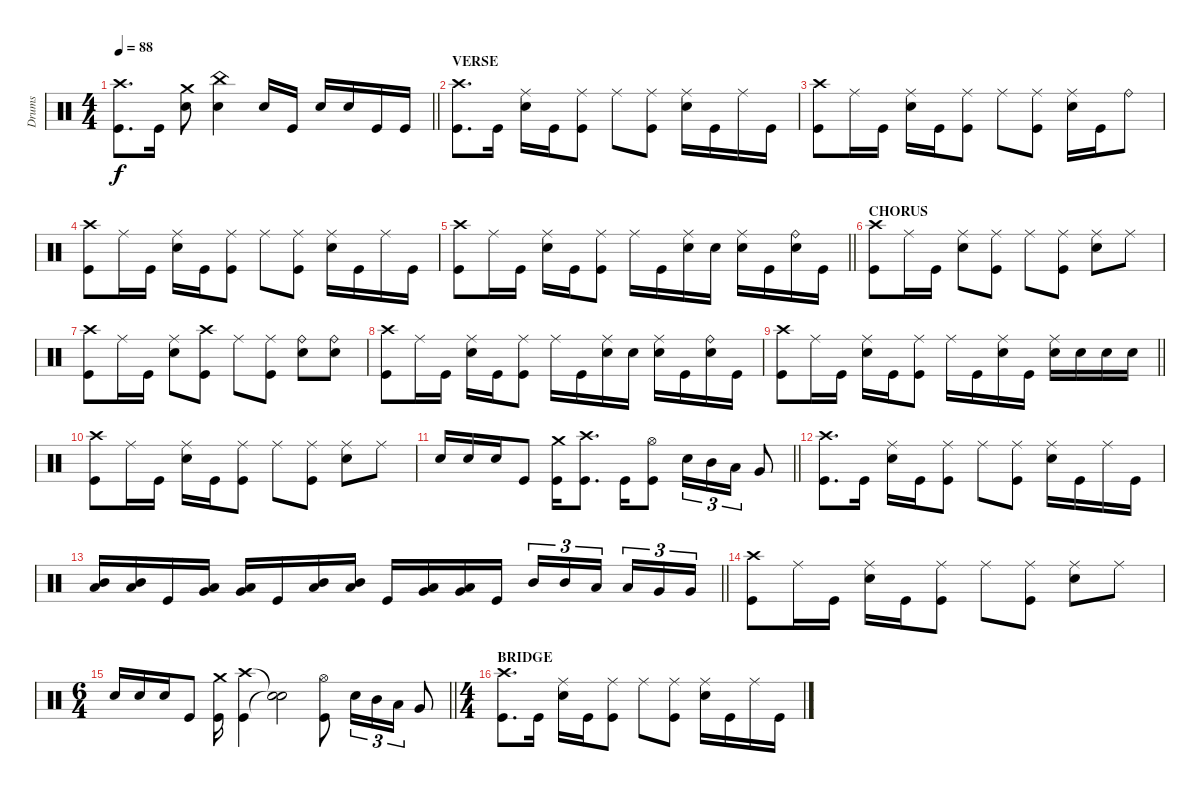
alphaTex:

\track ("Drums" "Drums") {instrument percussion}
\staff
\articulation defaults
\ts (4 4)
\tempo 88
\clef neutral
\barLineRight lightlight
\ks c
("Crash high (hit)" "Kick (hit)").8{d dy f} "Kick (hit)".16 ("Crash medium (hit)" "Electric Snare (hit)").8 ("China (hit)" "Electric Snare (hit)").4 "Electric Snare (hit)".16 "Kick (hit)".16 "Electric Snare (hit)".16 "Electric Snare (hit)".16 "Kick (hit)".16 "Kick (hit)".16 |
\section ("" "VERSE")
("Crash high (hit)" "Kick (hit)").8{d} "Kick (hit)".16 ("Ride (middle)" "Electric Snare (hit)").16 "Kick (hit)".16 ("Ride (middle)" "Kick (hit)").8 "Ride (middle)".8 ("Ride (middle)" "Kick (hit)").8 ("Ride (middle)" "Electric Snare (hit)").16 "Kick (hit)".16 "Ride (middle)".16 "Kick (hit)".16 |
("Crash high (hit)" "Kick (hit)").8 "Ride (middle)".16 "Kick (hit)".16 ("Ride (middle)" "Electric Snare (hit)").16 "Kick (hit)".16 ("Ride (middle)" "Kick (hit)").8 "Ride (middle)".8 ("Ride (middle)" "Kick (hit)").8 ("Ride (middle)" "Electric Snare (hit)").16 "Kick (hit)".16 "Ride (bell)".8 |
("Crash high (hit)" "Kick (hit)").8 "Ride (middle)".16 "Kick (hit)".16 ("Ride (middle)" "Electric Snare (hit)").16 "Kick (hit)".16 ("Ride (middle)" "Kick (hit)").8 "Ride (middle)".8 ("Ride (middle)" "Kick (hit)").8 ("Ride (middle)" "Electric Snare (hit)").16 "Kick (hit)".16 "Ride (middle)".16 "Kick (hit)".16 |
\barLineRight lightlight
("Crash high (hit)" "Kick (hit)").8 "Ride (middle)".16 "Kick (hit)".16 ("Ride (middle)" "Electric Snare (hit)").16 "Kick (hit)".16 ("Ride (middle)" "Kick (hit)").8 "Ride (middle)".16 "Kick (hit)".16 ("Ride (middle)" "Electric Snare (hit)").16 "Electric Snare (hit)".16 ("Ride (middle)" "Electric Snare (hit)").16 "Kick (hit)".16 ("Ride (bell)" "Electric Snare (hit)").16 "Kick (hit)".16 |
\section ("" "CHORUS")
("Crash high (hit)" "Kick (hit)").8 "Ride (middle)".16 "Kick (hit)".16 ("Ride (middle)" "Electric Snare (hit)").8 ("Ride (middle)" "Kick (hit)").8 "Ride (middle)".8 ("Ride (middle)" "Kick (hit)").8 ("Ride (middle)" "Electric Snare (hit)").8 "Ride (middle)".8 |
("Crash high (hit)" "Kick (hit)").8 "Ride (middle)".16 "Kick (hit)".16 ("Ride (middle)" "Electric Snare (hit)").8 ("Crash high (hit)" "Kick (hit)").8 "Ride (middle)".8 ("Ride (middle)" "Kick (hit)").8 ("Ride (bell)" "Electric Snare (hit)").8 ("Ride (bell)" "Electric Snare (hit)").8 |
("Crash high (hit)" "Kick (hit)").8 "Ride (middle)".16 "Kick (hit)".16 ("Ride (middle)" "Electric Snare (hit)").16 "Kick (hit)".16 ("Ride (middle)" "Kick (hit)").8 "Ride (middle)".16 "Kick (hit)".16 ("Ride (middle)" "Electric Snare (hit)").16 "Electric Snare (hit)".16 ("Ride (middle)" "Electric Snare (hit)").16 "Kick (hit)".16 ("Ride (bell)" "Electric Snare (hit)").16 "Kick (hit)".16 |
\barLineRight lightlight
("Crash high (hit)" "Kick (hit)").8 "Ride (middle)".16 "Kick (hit)".16 ("Ride (middle)" "Electric Snare (hit)").16 "Kick (hit)".16 ("Ride (middle)" "Kick (hit)").8 "Ride (middle)".16 "Kick (hit)".16 ("Ride (middle)" "Electric Snare (hit)").16 "Kick (hit)".16 ("Ride (middle)" "Electric Snare (hit)").16 "Electric Snare (hit)".16 "Electric Snare (hit)".16 "Electric Snare (hit)".16 |
("Crash high (hit)" "Kick (hit)").8 "Ride (middle)".16 "Kick (hit)".16 ("Ride (middle)" "Electric Snare (hit)").16 "Kick (hit)".16 ("Ride (middle)" "Kick (hit)").8 "Ride (middle)".8 ("Ride (middle)" "Kick (hit)").8 ("Ride (middle)" "Electric Snare (hit)").8 "Ride (middle)".8 |
\barLineRight lightlight "Electric Snare (hit)".16 "Electric Snare (hit)".16 "Electric Snare (hit)".16 "Kick (hit)".8
("Crash medium (hit)" "Kick (hit)").16 ("Crash high (hit)" "Kick (hit)").8{d} "Kick (hit)".16 ("Hi-Hat (open)" "Kick (hit)").8 "Electric Snare (hit)".16{tu (3 2)} "Mid Tom (hit)".16{tu (3 2)} "Low Tom (hit)".16{tu (3 2)} "Very Low Tom (hit)".8 |
("Crash high (hit)" "Kick (hit)").8{d} "Kick (hit)".16 ("Ride (middle)" "Electric Snare (hit)").16 "Kick (hit)".16 ("Ride (middle)" "Kick (hit)").8 "Ride (middle)".8 ("Ride (middle)" "Kick (hit)").8 ("Ride (middle)" "Electric Snare (hit)").16 "Kick (hit)".16 "Ride (middle)".16 "Kick (hit)".16 |
\barLineRight lightlight
("Mid Tom (hit)" "Low Tom (hit)").16 ("Mid Tom (hit)" "Low Tom (hit)").16 "Kick (hit)".16 ("Low Tom (hit)" "Very Low Tom (hit)").16 ("Low Tom (hit)" "Very Low Tom (hit)").16 "Kick (hit)".16 ("Mid Tom (hit)" "Low Tom (hit)").16 ("Mid Tom (hit)" "Low Tom (hit)").16 "Kick (hit)".16 ("Low Tom (hit)" "Very Low Tom (hit)").16 ("Low Tom (hit)" "Very Low Tom (hit)").16 "Kick (hit)".16 "Mid Tom (hit)".16{tu (3 2)} "Mid Tom (hit)".16{tu (3 2)} "Low Tom (hit)".16{tu (3 2) beam splitsecondary} "Low Tom (hit)".16{tu (3 2)} "Very Low Tom (hit)".16{tu (3 2)} "Very Low Tom (hit)".16{tu (3 2)} |
("Crash high (hit)" "Kick (hit)").8 "Ride (middle)".16 "Kick (hit)".16 ("Ride (middle)" "Electric Snare (hit)").16 "Kick (hit)".16 ("Ride (middle)" "Kick (hit)").8 "Ride (middle)".8 ("Ride (middle)" "Kick (hit)").8 ("Ride (middle)" "Electric Snare (hit)").8 "Ride (middle)".8 |
\ts (6 4)
\barLineRight lightlight "Electric Snare (hit)".16 "Electric Snare (hit)".16 "Electric Snare (hit)".16 "Kick (hit)".8
("Crash medium (hit)" "Kick (hit)").16 ("Crash high (hit)" "Kick (hit)").4 ("Snare (hit)"{t} "Snare (hit)"{t}).2 ("Hi-Hat (open)" "Kick (hit)").8 "Electric Snare (hit)".16{tu (3 2)} "Mid Tom (hit)".16{tu (3 2)} "Low Tom (hit)".16{tu (3 2)} "Very Low Tom (hit)".8 |
\ts (4 4)
\section ("" "BRIDGE")
("Crash high (hit)" "Kick (hit)").8{d} "Kick (hit)".16 ("Ride (middle)" "Electric Snare (hit)").16 "Kick (hit)".16 ("Ride (middle)" "Kick (hit)").8 "Ride (middle)".8 ("Ride (middle)" "Kick (hit)").8 ("Ride (middle)" "Electric Snare (hit)").16 "Kick (hit)".16 "Ride (middle)".16 "Kick (hit)".16
